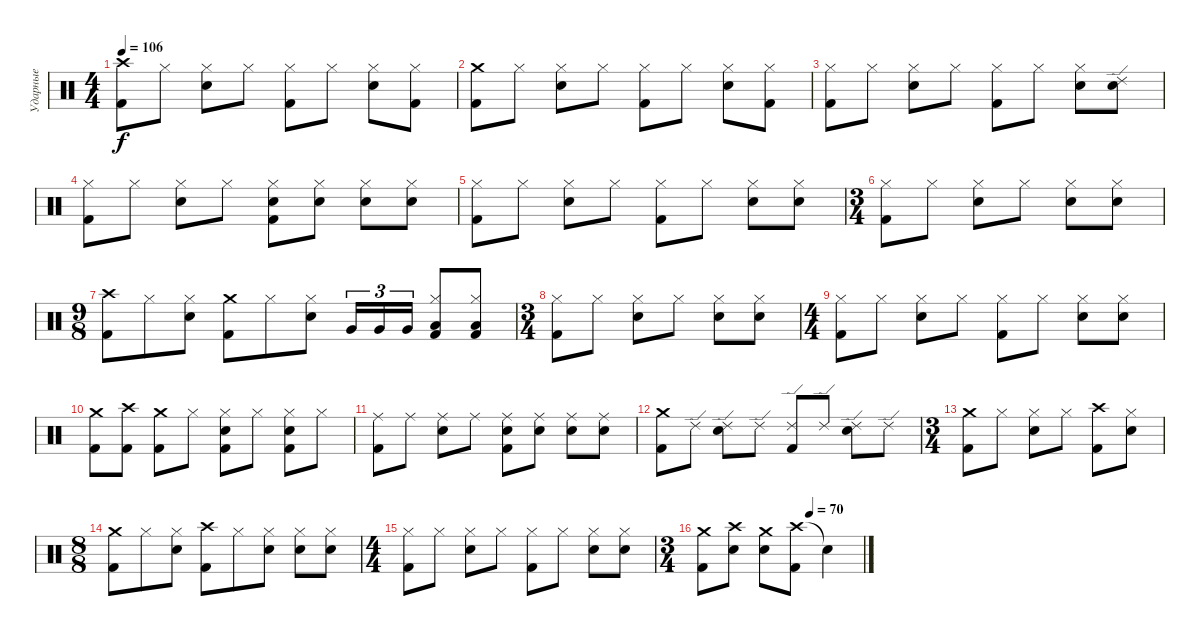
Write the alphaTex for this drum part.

\track ("Ударные" "Ударные") {instrument percussion}
\staff {score}
\articulation defaults
\ts (4 4)
\tempo 106
\clef neutral
\ks c
("Crash high (hit)" "Kick (hit) 2").8{dy f} "Hi-Hat (closed)".8 ("Hi-Hat (closed)" "Snare (hit) 2").8 "Hi-Hat (closed)".8 ("Hi-Hat (closed)" "Kick (hit) 2").8 "Hi-Hat (closed)".8 ("Hi-Hat (closed)" "Snare (hit) 2").8 ("Hi-Hat (closed)" "Kick (hit) 2").8 |
("Crash medium (hit)" "Kick (hit) 2").8 "Hi-Hat (closed)".8 ("Hi-Hat (closed)" "Snare (hit) 2").8 "Hi-Hat (closed)".8 ("Hi-Hat (closed)" "Kick (hit) 2").8 "Hi-Hat (closed)".8 ("Hi-Hat (closed)" "Snare (hit) 2").8 ("Hi-Hat (closed)" "Kick (hit) 2").8 |
("Hi-Hat (closed)" "Kick (hit) 2").8 "Hi-Hat (closed)".8 ("Hi-Hat (closed)" "Snare (hit) 2").8 "Hi-Hat (closed)".8 ("Hi-Hat (closed)" "Kick (hit) 2").8 "Hi-Hat (closed)".8 ("Hi-Hat (closed)" "Snare (hit) 2").8 ("Ride (edge) 2" "Snare (hit) 2").8 |
("Hi-Hat (closed)" "Kick (hit) 2").8 "Hi-Hat (closed)".8 ("Hi-Hat (closed)" "Snare (hit) 2").8 "Hi-Hat (closed)".8 ("Hi-Hat (closed)" "Snare (hit) 2" "Kick (hit) 2").8 ("Hi-Hat (closed)" "Snare (hit) 2").8 ("Hi-Hat (closed)" "Snare (hit) 2").8 ("Hi-Hat (closed)" "Snare (hit) 2").8 |
("Hi-Hat (closed)" "Kick (hit) 2").8 "Hi-Hat (closed)".8 ("Hi-Hat (closed)" "Snare (hit) 2").8 "Hi-Hat (closed)".8 ("Hi-Hat (closed)" "Kick (hit) 2").8 "Hi-Hat (closed)".8 ("Hi-Hat (closed)" "Snare (hit) 2").8 ("Hi-Hat (closed)" "Snare (hit) 2").8 |
\ts (3 4)
("Hi-Hat (closed)" "Kick (hit) 2").8 "Hi-Hat (closed)".8 ("Hi-Hat (closed)" "Snare (hit) 2").8 "Hi-Hat (closed)".8 ("Hi-Hat (closed)" "Snare (hit) 2").8 ("Hi-Hat (closed)" "Snare (hit) 2").8 |
\ts (9 8)
("Crash high (hit)" "Kick (hit) 2").8 "Hi-Hat (closed)".8 ("Hi-Hat (closed)" "Snare (hit) 2").8 ("Crash medium (hit)" "Kick (hit) 2").8 "Hi-Hat (closed)".8 ("Hi-Hat (closed)" "Snare (hit) 2").8 "Very Low Tom (hit)".16{tu (3 2)} "Very Low Tom (hit)".16{tu (3 2)} "Very Low Tom (hit)".16{tu (3 2)} ("Hi-Hat (closed)" "Low Floor Tom (hit)" "Kick (hit) 2").8 ("Hi-Hat (closed)" "Low Floor Tom (hit)" "Kick (hit) 2").8 |
\ts (3 4)
("Hi-Hat (closed)" "Kick (hit) 2").8 "Hi-Hat (closed)".8 ("Hi-Hat (closed)" "Snare (hit) 2").8 "Hi-Hat (closed)".8 ("Hi-Hat (closed)" "Snare (hit) 2").8 ("Hi-Hat (closed)" "Snare (hit) 2").8 |
\ts (4 4)
("Hi-Hat (closed)" "Kick (hit) 2").8 "Hi-Hat (closed)".8 ("Hi-Hat (closed)" "Snare (hit) 2").8 "Hi-Hat (closed)".8 ("Hi-Hat (closed)" "Kick (hit) 2").8 "Hi-Hat (closed)".8 ("Hi-Hat (closed)" "Snare (hit) 2").8 ("Hi-Hat (closed)" "Snare (hit) 2").8 |
("Crash medium (hit)" "Kick (hit) 2").8 ("Crash high (hit)" "Kick (hit) 2").8 ("Crash medium (hit)" "Kick (hit) 2").8 "Hi-Hat (closed)".8 ("Hi-Hat (closed)" "Snare (hit) 2" "Kick (hit) 2").8 "Hi-Hat (closed)".8 ("Hi-Hat (closed)" "Snare (hit) 2" "Kick (hit) 2").8 "Hi-Hat (closed)".8 |
("Ride (middle)" "Kick (hit) 2").8 "Ride (middle)".8 ("Ride (middle)" "Snare (hit) 2").8 "Ride (middle)".8 ("Ride (middle)" "Snare (hit) 2" "Kick (hit) 2").8 ("Ride (middle)" "Snare (hit) 2").8 ("Ride (middle)" "Snare (hit) 2").8 ("Ride (middle)" "Snare (hit) 2").8 |
("Crash medium (hit)" "Kick (hit) 2").8 "Ride (edge) 2".8 ("Ride (edge) 2" "Snare (hit) 2").8 "Ride (edge) 2".8 ("Ride (edge) 2" "Kick (hit) 2").8 "Ride (edge) 2".8 ("Ride (edge) 2" "Snare (hit) 2").8 "Ride (edge) 2".8 |
\ts (3 4)
("Crash medium (hit)" "Kick (hit) 2").8 "Hi-Hat (closed)".8 ("Hi-Hat (closed)" "Snare (hit) 2").8 "Hi-Hat (closed)".8 ("Crash high (hit)" "Kick (hit) 2").8 ("Hi-Hat (closed)" "Snare (hit) 2").8 |
\ts (8 8)
("Crash medium (hit)" "Kick (hit) 2").8 "Hi-Hat (closed)".8 ("Hi-Hat (closed)" "Snare (hit) 2").8 ("Crash high (hit)" "Kick (hit) 2").8 "Hi-Hat (closed)".8 ("Hi-Hat (closed)" "Snare (hit) 2").8 ("Hi-Hat (closed)" "Snare (hit) 2").8 ("Hi-Hat (closed)" "Snare (hit) 2").8 |
\ts (4 4)
("Hi-Hat (closed)" "Kick (hit) 2").8 "Hi-Hat (closed)".8 ("Hi-Hat (closed)" "Snare (hit) 2").8 "Hi-Hat (closed)".8 ("Hi-Hat (closed)" "Kick (hit) 2").8 "Hi-Hat (closed)".8 ("Hi-Hat (closed)" "Snare (hit) 2").8 ("Hi-Hat (closed)" "Snare (hit) 2").8 |
\ts (3 4)
\tempo (70 0.6666666666666666)
("Crash medium (hit)" "Kick (hit) 2").8 ("Crash high (hit)" "Snare (hit) 2").8 ("Crash medium (hit)" "Snare (hit) 2").8 ("Crash high (hit)" "Kick (hit) 2").8 "Snare (hit)"{t}.4
